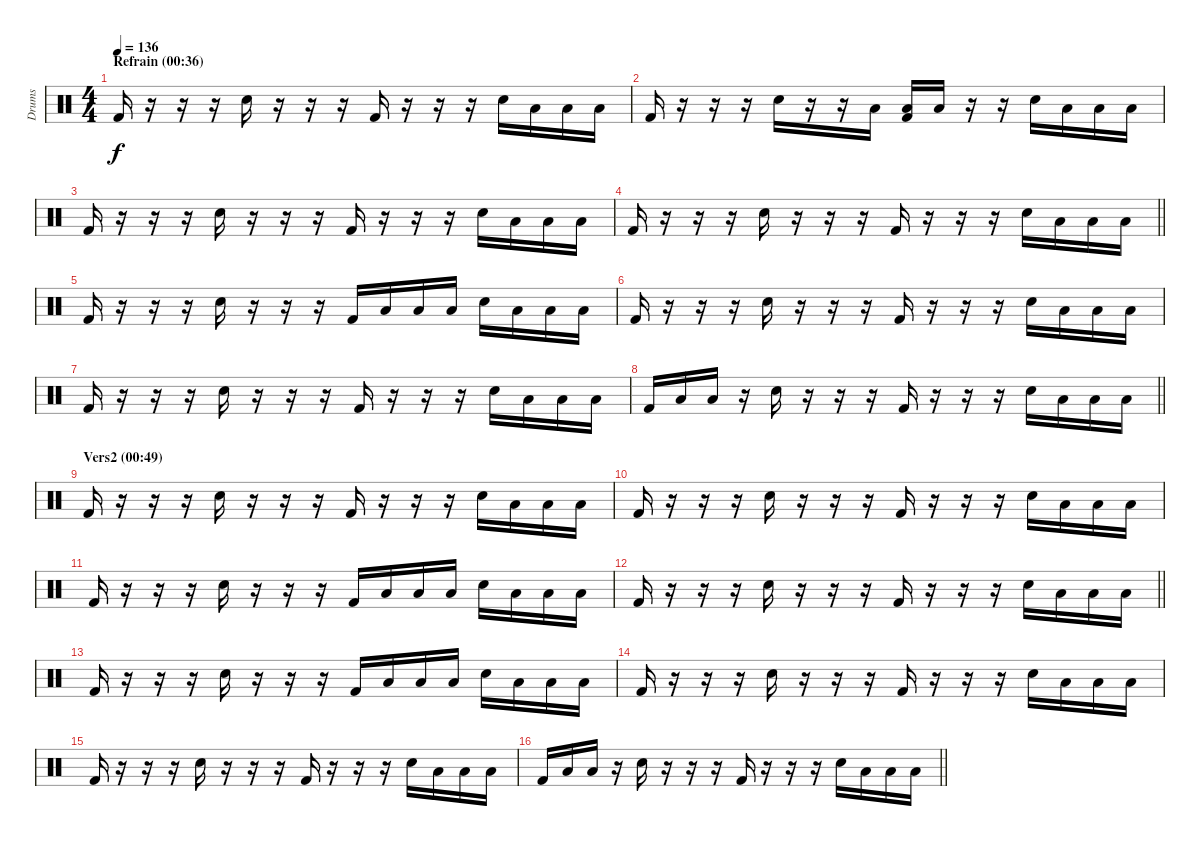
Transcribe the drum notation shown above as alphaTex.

\track ("Drums" "Drums") {instrument percussion}
\staff {score}
\articulation defaults
\ts (4 4)
\section ("" "Refrain (00:36)")
\tempo 136
\clef neutral
\ks c "Kick (hit) 2".16{dy f}
r.16 r.16 r.16 "Electric Snare (hit)".16 r.16 r.16 r.16 "Kick (hit) 2".16 r.16 r.16 r.16 "Electric Snare (hit)".16 "Low Floor Tom (hit)".16 "Low Floor Tom (hit)".16 "Low Floor Tom (hit)".16 |
"Kick (hit) 2".16 r.16 r.16 r.16 "Electric Snare (hit)".16 r.16 r.16 "Low Floor Tom (hit)".16 ("Low Floor Tom (hit)" "Kick (hit) 2").16 "Low Floor Tom (hit)".16 r.16 r.16 "Electric Snare (hit)".16 "Low Floor Tom (hit)".16 "Low Floor Tom (hit)".16 "Low Floor Tom (hit)".16 |
"Kick (hit) 2".16 r.16 r.16 r.16 "Electric Snare (hit)".16 r.16 r.16 r.16 "Kick (hit) 2".16 r.16 r.16 r.16 "Electric Snare (hit)".16 "Low Floor Tom (hit)".16 "Low Floor Tom (hit)".16 "Low Floor Tom (hit)".16 |
\barLineRight lightlight "Kick (hit) 2".16
r.16 r.16 r.16 "Electric Snare (hit)".16 r.16 r.16 r.16 "Kick (hit) 2".16 r.16 r.16 r.16 "Electric Snare (hit)".16 "Low Floor Tom (hit)".16 "Low Floor Tom (hit)".16 "Low Floor Tom (hit)".16 |
"Kick (hit) 2".16 r.16 r.16 r.16 "Electric Snare (hit)".16 r.16 r.16 r.16 "Kick (hit) 2".16 "Low Floor Tom (hit)".16 "Low Floor Tom (hit)".16 "Low Floor Tom (hit)".16 "Electric Snare (hit)".16 "Low Floor Tom (hit)".16 "Low Floor Tom (hit)".16 "Low Floor Tom (hit)".16 |
"Kick (hit) 2".16 r.16 r.16 r.16 "Electric Snare (hit)".16 r.16 r.16 r.16 "Kick (hit) 2".16 r.16 r.16 r.16 "Electric Snare (hit)".16 "Low Floor Tom (hit)".16 "Low Floor Tom (hit)".16 "Low Floor Tom (hit)".16 |
"Kick (hit) 2".16 r.16 r.16 r.16 "Electric Snare (hit)".16 r.16 r.16 r.16 "Kick (hit) 2".16 r.16 r.16 r.16 "Electric Snare (hit)".16 "Low Floor Tom (hit)".16 "Low Floor Tom (hit)".16 "Low Floor Tom (hit)".16 |
\barLineRight lightlight "Kick (hit) 2".16 "Low Floor Tom (hit)".16 "Low Floor Tom (hit)".16
r.16 "Electric Snare (hit)".16 r.16 r.16 r.16 "Kick (hit) 2".16 r.16 r.16 r.16 "Electric Snare (hit)".16 "Low Floor Tom (hit)".16 "Low Floor Tom (hit)".16 "Low Floor Tom (hit)".16 |
\section ("" "Vers2 (00:49)")
"Kick (hit) 2".16 r.16 r.16 r.16 "Electric Snare (hit)".16 r.16 r.16 r.16 "Kick (hit) 2".16 r.16 r.16 r.16 "Electric Snare (hit)".16 "Low Floor Tom (hit)".16 "Low Floor Tom (hit)".16 "Low Floor Tom (hit)".16 |
"Kick (hit) 2".16 r.16 r.16 r.16 "Electric Snare (hit)".16 r.16 r.16 r.16 "Kick (hit) 2".16 r.16 r.16 r.16 "Electric Snare (hit)".16 "Low Floor Tom (hit)".16 "Low Floor Tom (hit)".16 "Low Floor Tom (hit)".16 |
"Kick (hit) 2".16 r.16 r.16 r.16 "Electric Snare (hit)".16 r.16 r.16 r.16 "Kick (hit) 2".16 "Low Floor Tom (hit)".16 "Low Floor Tom (hit)".16 "Low Floor Tom (hit)".16 "Electric Snare (hit)".16 "Low Floor Tom (hit)".16 "Low Floor Tom (hit)".16 "Low Floor Tom (hit)".16 |
\barLineRight lightlight "Kick (hit) 2".16
r.16 r.16 r.16 "Electric Snare (hit)".16 r.16 r.16 r.16 "Kick (hit) 2".16 r.16 r.16 r.16 "Electric Snare (hit)".16 "Low Floor Tom (hit)".16 "Low Floor Tom (hit)".16 "Low Floor Tom (hit)".16 |
"Kick (hit) 2".16 r.16 r.16 r.16 "Electric Snare (hit)".16 r.16 r.16 r.16 "Kick (hit) 2".16 "Low Floor Tom (hit)".16 "Low Floor Tom (hit)".16 "Low Floor Tom (hit)".16 "Electric Snare (hit)".16 "Low Floor Tom (hit)".16 "Low Floor Tom (hit)".16 "Low Floor Tom (hit)".16 |
"Kick (hit) 2".16 r.16 r.16 r.16 "Electric Snare (hit)".16 r.16 r.16 r.16 "Kick (hit) 2".16 r.16 r.16 r.16 "Electric Snare (hit)".16 "Low Floor Tom (hit)".16 "Low Floor Tom (hit)".16 "Low Floor Tom (hit)".16 |
"Kick (hit) 2".16 r.16 r.16 r.16 "Electric Snare (hit)".16 r.16 r.16 r.16 "Kick (hit) 2".16 r.16 r.16 r.16 "Electric Snare (hit)".16 "Low Floor Tom (hit)".16 "Low Floor Tom (hit)".16 "Low Floor Tom (hit)".16 |
\barLineRight lightlight "Kick (hit) 2".16 "Low Floor Tom (hit)".16 "Low Floor Tom (hit)".16
r.16 "Electric Snare (hit)".16 r.16 r.16 r.16 "Kick (hit) 2".16 r.16 r.16 r.16 "Electric Snare (hit)".16 "Low Floor Tom (hit)".16 "Low Floor Tom (hit)".16 "Low Floor Tom (hit)".16
